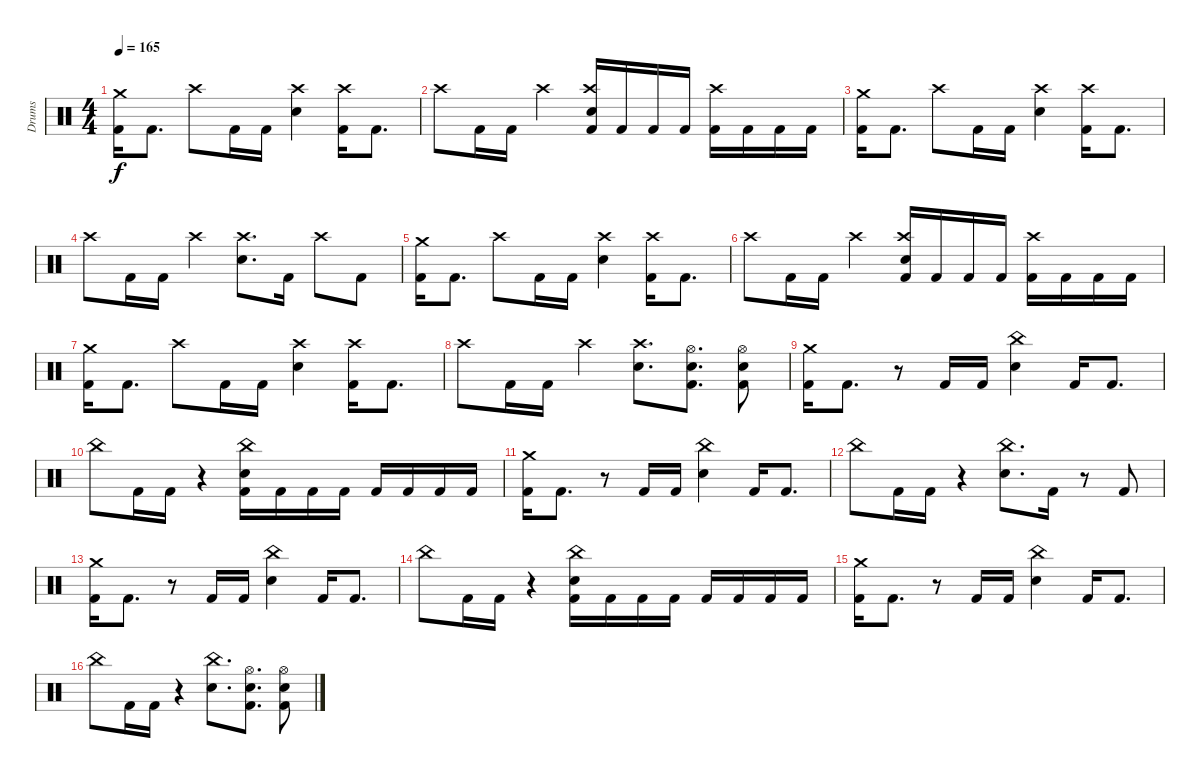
\track ("Drums" "Drums") {instrument percussion}
\staff {score}
\articulation defaults
\ts (4 4)
\tempo 165
\clef neutral
\ks c
("Crash medium (hit)" "Kick (hit) 2").16{dy f} "Kick (hit) 2".8{d} "Crash high (hit)".8 "Kick (hit) 2".16 "Kick (hit) 2".16 ("Crash high (hit)" "Electric Snare (hit)").4 ("Crash high (hit)" "Kick (hit) 2").16 "Kick (hit) 2".8{d} |
"Crash high (hit)".8 "Kick (hit) 2".16 "Kick (hit) 2".16 "Crash high (hit)".4 ("Crash high (hit)" "Electric Snare (hit)" "Kick (hit) 2").16 "Kick (hit) 2".16 "Kick (hit) 2".16 "Kick (hit) 2".16 ("Crash high (hit)" "Kick (hit) 2").16 "Kick (hit) 2".16 "Kick (hit) 2".16 "Kick (hit) 2".16 |
("Crash medium (hit)" "Kick (hit) 2").16 "Kick (hit) 2".8{d} "Crash high (hit)".8 "Kick (hit) 2".16 "Kick (hit) 2".16 ("Crash high (hit)" "Electric Snare (hit)").4 ("Crash high (hit)" "Kick (hit) 2").16 "Kick (hit) 2".8{d} |
"Crash high (hit)".8 "Kick (hit) 2".16 "Kick (hit) 2".16 "Crash high (hit)".4 ("Crash high (hit)" "Electric Snare (hit)").8{d} "Kick (hit) 2".16 "Crash high (hit)".8 "Kick (hit) 2".8 |
("Crash medium (hit)" "Kick (hit) 2").16 "Kick (hit) 2".8{d} "Crash high (hit)".8 "Kick (hit) 2".16 "Kick (hit) 2".16 ("Crash high (hit)" "Electric Snare (hit)").4 ("Crash high (hit)" "Kick (hit) 2").16 "Kick (hit) 2".8{d} |
"Crash high (hit)".8 "Kick (hit) 2".16 "Kick (hit) 2".16 "Crash high (hit)".4 ("Crash high (hit)" "Electric Snare (hit)" "Kick (hit) 2").16 "Kick (hit) 2".16 "Kick (hit) 2".16 "Kick (hit) 2".16 ("Crash high (hit)" "Kick (hit) 2").16 "Kick (hit) 2".16 "Kick (hit) 2".16 "Kick (hit) 2".16 |
("Crash medium (hit)" "Kick (hit) 2").16 "Kick (hit) 2".8{d} "Crash high (hit)".8 "Kick (hit) 2".16 "Kick (hit) 2".16 ("Crash high (hit)" "Electric Snare (hit)").4 ("Crash high (hit)" "Kick (hit) 2").16 "Kick (hit) 2".8{d} |
"Crash high (hit)".8 "Kick (hit) 2".16 "Kick (hit) 2".16 "Crash high (hit)".4 ("Crash high (hit)" "Electric Snare (hit)").8{d} ("Hi-Hat (open)" "Electric Snare (hit)" "Kick (hit) 2").8{d} ("Hi-Hat (open)" "Electric Snare (hit)" "Kick (hit) 2").8 |
("Crash medium (hit)" "Kick (hit) 2").16 "Kick (hit) 2".8{d} r.8 "Kick (hit) 2".16 "Kick (hit) 2".16 ("China (hit)" "Electric Snare (hit)").4 "Kick (hit) 2".16 "Kick (hit) 2".8{d} |
"China (hit)".8 "Kick (hit) 2".16 "Kick (hit) 2".16 r.4 ("China (hit)" "Electric Snare (hit)" "Kick (hit) 2").16 "Kick (hit) 2".16 "Kick (hit) 2".16 "Kick (hit) 2".16 "Kick (hit) 2".16 "Kick (hit) 2".16 "Kick (hit) 2".16 "Kick (hit) 2".16 |
("Crash medium (hit)" "Kick (hit) 2").16 "Kick (hit) 2".8{d} r.8 "Kick (hit) 2".16 "Kick (hit) 2".16 ("China (hit)" "Electric Snare (hit)").4 "Kick (hit) 2".16 "Kick (hit) 2".8{d} |
"China (hit)".8 "Kick (hit) 2".16 "Kick (hit) 2".16 r.4 ("China (hit)" "Electric Snare (hit)").8{d} "Kick (hit) 2".16 r.8 "Kick (hit) 2".8 |
("Crash medium (hit)" "Kick (hit) 2").16 "Kick (hit) 2".8{d} r.8 "Kick (hit) 2".16 "Kick (hit) 2".16 ("China (hit)" "Electric Snare (hit)").4 "Kick (hit) 2".16 "Kick (hit) 2".8{d} |
"China (hit)".8 "Kick (hit) 2".16 "Kick (hit) 2".16 r.4 ("China (hit)" "Electric Snare (hit)" "Kick (hit) 2").16 "Kick (hit) 2".16 "Kick (hit) 2".16 "Kick (hit) 2".16 "Kick (hit) 2".16 "Kick (hit) 2".16 "Kick (hit) 2".16 "Kick (hit) 2".16 |
("Crash medium (hit)" "Kick (hit) 2").16 "Kick (hit) 2".8{d} r.8 "Kick (hit) 2".16 "Kick (hit) 2".16 ("China (hit)" "Electric Snare (hit)").4 "Kick (hit) 2".16 "Kick (hit) 2".8{d} |
"China (hit)".8 "Kick (hit) 2".16 "Kick (hit) 2".16 r.4 ("China (hit)" "Electric Snare (hit)").8{d} ("Hi-Hat (open)" "Electric Snare (hit)" "Kick (hit) 2").8{d} ("Hi-Hat (open)" "Electric Snare (hit)" "Kick (hit) 2").8
